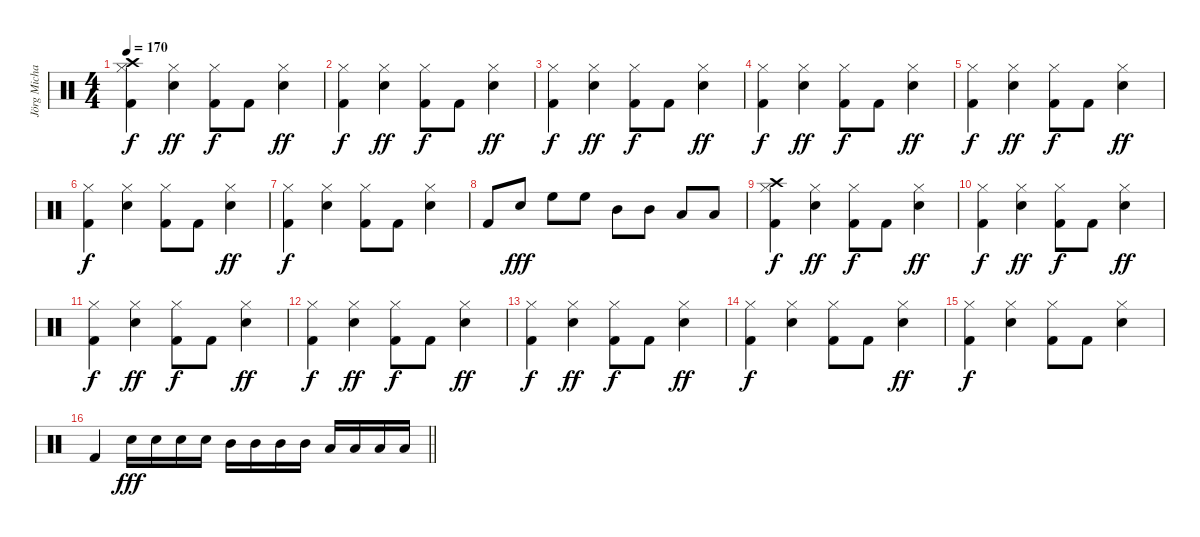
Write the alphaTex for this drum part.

\track ("Jörg Michael" "Jörg Micha") {instrument percussion}
\staff {score}
\articulation defaults
\ts (4 4)
\tempo 170
\clef neutral
\ks c
("Kick (hit) 2" "Hi-Hat (closed)" "Crash high (hit)").4{dy f} ("Electric Snare (hit)" "Hi-Hat (closed)").4{dy ff} ("Kick (hit) 2" "Hi-Hat (closed)").8{dy f} "Kick (hit) 2".8 ("Electric Snare (hit)" "Hi-Hat (closed)").4{dy ff} |
("Kick (hit) 2" "Hi-Hat (closed)").4{dy f} ("Electric Snare (hit)" "Hi-Hat (closed)").4{dy ff} ("Kick (hit) 2" "Hi-Hat (closed)").8{dy f} "Kick (hit) 2".8 ("Electric Snare (hit)" "Hi-Hat (closed)").4{dy ff} |
("Kick (hit) 2" "Hi-Hat (closed)").4{dy f} ("Electric Snare (hit)" "Hi-Hat (closed)").4{dy ff} ("Kick (hit) 2" "Hi-Hat (closed)").8{dy f} "Kick (hit) 2".8 ("Electric Snare (hit)" "Hi-Hat (closed)").4{dy ff} |
("Kick (hit) 2" "Hi-Hat (closed)").4{dy f} ("Electric Snare (hit)" "Hi-Hat (closed)").4{dy ff} ("Kick (hit) 2" "Hi-Hat (closed)").8{dy f} "Kick (hit) 2".8 ("Electric Snare (hit)" "Hi-Hat (closed)").4{dy ff} |
("Kick (hit) 2" "Hi-Hat (closed)").4{dy f} ("Electric Snare (hit)" "Hi-Hat (closed)").4{dy ff} ("Kick (hit) 2" "Hi-Hat (closed)").8{dy f} "Kick (hit) 2".8 ("Electric Snare (hit)" "Hi-Hat (closed)").4{dy ff} |
("Kick (hit) 2" "Hi-Hat (closed)").4{dy f} ("Electric Snare (hit)" "Hi-Hat (closed)").4 ("Kick (hit) 2" "Hi-Hat (closed)").8 "Kick (hit) 2".8 ("Electric Snare (hit)" "Hi-Hat (closed)").4{dy ff} |
("Kick (hit) 2" "Hi-Hat (closed)").4{dy f} ("Electric Snare (hit)" "Hi-Hat (closed)").4 ("Kick (hit) 2" "Hi-Hat (closed)").8 "Kick (hit) 2".8 ("Electric Snare (hit)" "Hi-Hat (closed)").4 |
"Kick (hit) 2".8 "Electric Snare (hit)".8{dy fff} "High Floor Tom (hit)".8 "High Floor Tom (hit)".8 "Mid Tom (hit)".8 "Mid Tom (hit)".8 "Low Tom (hit)".8 "Low Tom (hit)".8 |
("Kick (hit) 2" "Hi-Hat (closed)" "Crash high (hit)").4{dy f} ("Electric Snare (hit)" "Hi-Hat (closed)").4{dy ff} ("Kick (hit) 2" "Hi-Hat (closed)").8{dy f} "Kick (hit) 2".8 ("Electric Snare (hit)" "Hi-Hat (closed)").4{dy ff} |
("Kick (hit) 2" "Hi-Hat (closed)").4{dy f} ("Electric Snare (hit)" "Hi-Hat (closed)").4{dy ff} ("Kick (hit) 2" "Hi-Hat (closed)").8{dy f} "Kick (hit) 2".8 ("Electric Snare (hit)" "Hi-Hat (closed)").4{dy ff} |
("Kick (hit) 2" "Hi-Hat (closed)").4{dy f} ("Electric Snare (hit)" "Hi-Hat (closed)").4{dy ff} ("Kick (hit) 2" "Hi-Hat (closed)").8{dy f} "Kick (hit) 2".8 ("Electric Snare (hit)" "Hi-Hat (closed)").4{dy ff} |
("Kick (hit) 2" "Hi-Hat (closed)").4{dy f} ("Electric Snare (hit)" "Hi-Hat (closed)").4{dy ff} ("Kick (hit) 2" "Hi-Hat (closed)").8{dy f} "Kick (hit) 2".8 ("Electric Snare (hit)" "Hi-Hat (closed)").4{dy ff} |
("Kick (hit) 2" "Hi-Hat (closed)").4{dy f} ("Electric Snare (hit)" "Hi-Hat (closed)").4{dy ff} ("Kick (hit) 2" "Hi-Hat (closed)").8{dy f} "Kick (hit) 2".8 ("Electric Snare (hit)" "Hi-Hat (closed)").4{dy ff} |
("Kick (hit) 2" "Hi-Hat (closed)").4{dy f} ("Electric Snare (hit)" "Hi-Hat (closed)").4 ("Kick (hit) 2" "Hi-Hat (closed)").8 "Kick (hit) 2".8 ("Electric Snare (hit)" "Hi-Hat (closed)").4{dy ff} |
("Kick (hit) 2" "Hi-Hat (closed)").4{dy f} ("Electric Snare (hit)" "Hi-Hat (closed)").4 ("Kick (hit) 2" "Hi-Hat (closed)").8 "Kick (hit) 2".8 ("Electric Snare (hit)" "Hi-Hat (closed)").4 |
\barLineRight lightlight "Kick (hit) 2".4 "Electric Snare (hit)".16{dy fff} "Electric Snare (hit)".16 "Electric Snare (hit)".16 "Electric Snare (hit)".16 "Mid Tom (hit)".16 "Mid Tom (hit)".16 "Mid Tom (hit)".16 "Mid Tom (hit)".16 "Low Tom (hit)".16 "Low Tom (hit)".16 "Low Tom (hit)".16 "Low Tom (hit)".16
